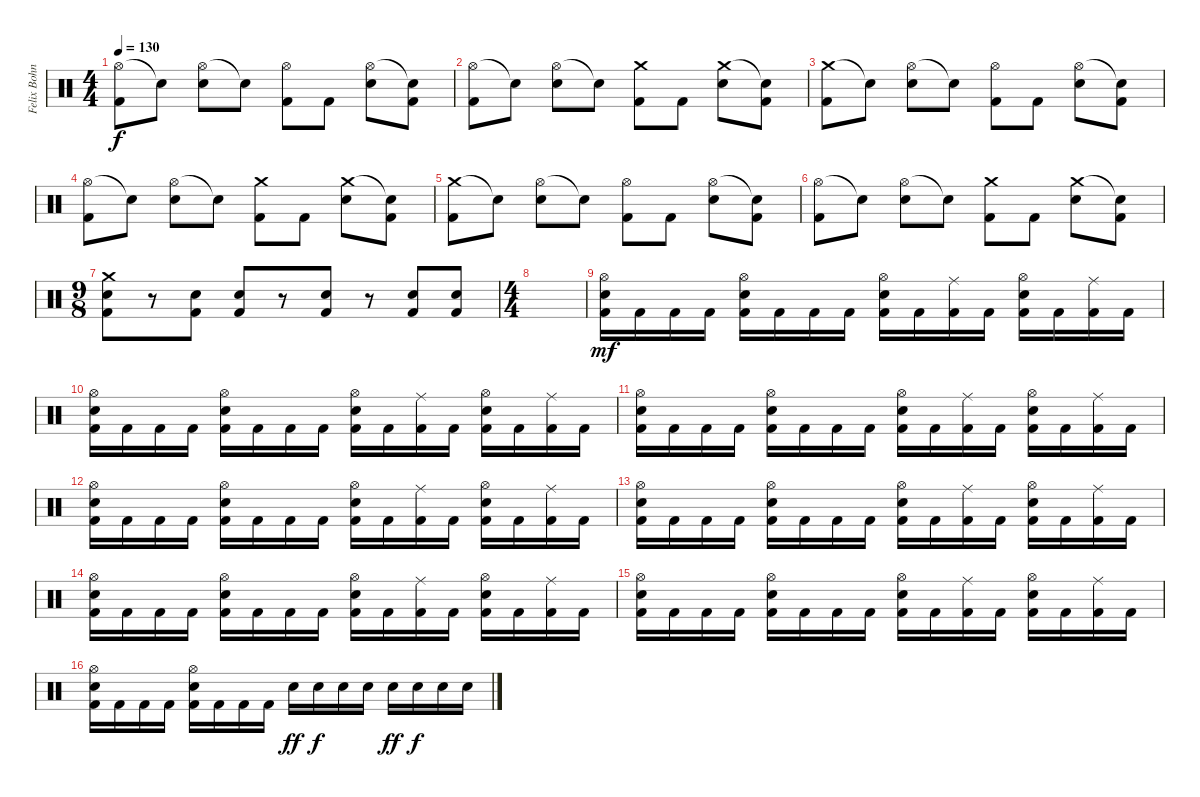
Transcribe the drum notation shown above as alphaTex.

\track ("Felix Bohnke" "Felix Bohn") {instrument percussion}
\staff {score}
\articulation defaults
\ts (4 4)
\tempo 130
\clef neutral
\ks c
("Hi-Hat (open)" "Kick (hit) 2").8{dy f} "Snare (hit)"{t}.8 ("Hi-Hat (open)" "Electric Snare (hit)").8 "Snare (hit)"{t}.8 ("Hi-Hat (open)" "Kick (hit) 2").8 "Kick (hit) 2".8 ("Hi-Hat (open)" "Electric Snare (hit)").8 ("Snare (hit)"{t} "Kick (hit) 2").8 |
("Hi-Hat (open)" "Kick (hit) 2").8 "Snare (hit)"{t}.8 ("Hi-Hat (open)" "Electric Snare (hit)").8 "Snare (hit)"{t}.8 ("Crash medium (hit)" "Kick (hit) 2").8 "Kick (hit) 2".8 ("Crash medium (hit)" "Electric Snare (hit)").8 ("Snare (hit)"{t} "Kick (hit) 2").8 |
("Crash medium (hit)" "Kick (hit) 2").8 "Snare (hit)"{t}.8 ("Hi-Hat (open)" "Electric Snare (hit)").8 "Snare (hit)"{t}.8 ("Hi-Hat (open)" "Kick (hit) 2").8 "Kick (hit) 2".8 ("Hi-Hat (open)" "Electric Snare (hit)").8 ("Snare (hit)"{t} "Kick (hit) 2").8 |
("Hi-Hat (open)" "Kick (hit) 2").8 "Snare (hit)"{t}.8 ("Hi-Hat (open)" "Electric Snare (hit)").8 "Snare (hit)"{t}.8 ("Crash medium (hit)" "Kick (hit) 2").8 "Kick (hit) 2".8 ("Crash medium (hit)" "Electric Snare (hit)").8 ("Snare (hit)"{t} "Kick (hit) 2").8 |
("Crash medium (hit)" "Kick (hit) 2").8 "Snare (hit)"{t}.8 ("Hi-Hat (open)" "Electric Snare (hit)").8 "Snare (hit)"{t}.8 ("Hi-Hat (open)" "Kick (hit) 2").8 "Kick (hit) 2".8 ("Hi-Hat (open)" "Electric Snare (hit)").8 ("Snare (hit)"{t} "Kick (hit) 2").8 |
("Hi-Hat (open)" "Kick (hit) 2").8 "Snare (hit)"{t}.8 ("Hi-Hat (open)" "Electric Snare (hit)").8 "Snare (hit)"{t}.8 ("Crash medium (hit)" "Kick (hit) 2").8 "Kick (hit) 2".8 ("Crash medium (hit)" "Electric Snare (hit)").8 ("Snare (hit)"{t} "Kick (hit) 2").8 |
\ts (9 8)
("Crash medium (hit)" "Electric Snare (hit)" "Kick (hit) 2").8 r.8 ("Electric Snare (hit)" "Kick (hit) 2").8 ("Electric Snare (hit)" "Kick (hit) 2").8 r.8 ("Electric Snare (hit)" "Kick (hit) 2").8 r.8 ("Electric Snare (hit)" "Kick (hit) 2").8 ("Electric Snare (hit)" "Kick (hit) 2").8 |
\ts (4 4)
|
("Hi-Hat (open)" "Electric Snare (hit)" "Kick (hit) 2").16{dy mf} "Kick (hit) 2".16 "Kick (hit) 2".16 "Kick (hit) 2".16 ("Hi-Hat (open)" "Electric Snare (hit)" "Kick (hit) 2").16 "Kick (hit) 2".16 "Kick (hit) 2".16 "Kick (hit) 2".16 ("Hi-Hat (open)" "Electric Snare (hit)" "Kick (hit) 2").16 "Kick (hit) 2".16 ("Ride (middle)" "Kick (hit) 2").16 "Kick (hit) 2".16 ("Hi-Hat (open)" "Electric Snare (hit)" "Kick (hit) 2").16 "Kick (hit) 2".16 ("Ride (middle)" "Kick (hit) 2").16 "Kick (hit) 2".16 |
("Hi-Hat (open)" "Electric Snare (hit)" "Kick (hit) 2").16 "Kick (hit) 2".16 "Kick (hit) 2".16 "Kick (hit) 2".16 ("Hi-Hat (open)" "Electric Snare (hit)" "Kick (hit) 2").16 "Kick (hit) 2".16 "Kick (hit) 2".16 "Kick (hit) 2".16 ("Hi-Hat (open)" "Electric Snare (hit)" "Kick (hit) 2").16 "Kick (hit) 2".16 ("Ride (middle)" "Kick (hit) 2").16 "Kick (hit) 2".16 ("Hi-Hat (open)" "Electric Snare (hit)" "Kick (hit) 2").16 "Kick (hit) 2".16 ("Ride (middle)" "Kick (hit) 2").16 "Kick (hit) 2".16 |
("Hi-Hat (open)" "Electric Snare (hit)" "Kick (hit) 2").16 "Kick (hit) 2".16 "Kick (hit) 2".16 "Kick (hit) 2".16 ("Hi-Hat (open)" "Electric Snare (hit)" "Kick (hit) 2").16 "Kick (hit) 2".16 "Kick (hit) 2".16 "Kick (hit) 2".16 ("Hi-Hat (open)" "Electric Snare (hit)" "Kick (hit) 2").16 "Kick (hit) 2".16 ("Ride (middle)" "Kick (hit) 2").16 "Kick (hit) 2".16 ("Hi-Hat (open)" "Electric Snare (hit)" "Kick (hit) 2").16 "Kick (hit) 2".16 ("Ride (middle)" "Kick (hit) 2").16 "Kick (hit) 2".16 |
("Hi-Hat (open)" "Electric Snare (hit)" "Kick (hit) 2").16 "Kick (hit) 2".16 "Kick (hit) 2".16 "Kick (hit) 2".16 ("Hi-Hat (open)" "Electric Snare (hit)" "Kick (hit) 2").16 "Kick (hit) 2".16 "Kick (hit) 2".16 "Kick (hit) 2".16 ("Hi-Hat (open)" "Electric Snare (hit)" "Kick (hit) 2").16 "Kick (hit) 2".16 ("Ride (middle)" "Kick (hit) 2").16 "Kick (hit) 2".16 ("Hi-Hat (open)" "Electric Snare (hit)" "Kick (hit) 2").16 "Kick (hit) 2".16 ("Ride (middle)" "Kick (hit) 2").16 "Kick (hit) 2".16 |
("Hi-Hat (open)" "Electric Snare (hit)" "Kick (hit) 2").16 "Kick (hit) 2".16 "Kick (hit) 2".16 "Kick (hit) 2".16 ("Hi-Hat (open)" "Electric Snare (hit)" "Kick (hit) 2").16 "Kick (hit) 2".16 "Kick (hit) 2".16 "Kick (hit) 2".16 ("Hi-Hat (open)" "Electric Snare (hit)" "Kick (hit) 2").16 "Kick (hit) 2".16 ("Ride (middle)" "Kick (hit) 2").16 "Kick (hit) 2".16 ("Hi-Hat (open)" "Electric Snare (hit)" "Kick (hit) 2").16 "Kick (hit) 2".16 ("Ride (middle)" "Kick (hit) 2").16 "Kick (hit) 2".16 |
("Hi-Hat (open)" "Electric Snare (hit)" "Kick (hit) 2").16 "Kick (hit) 2".16 "Kick (hit) 2".16 "Kick (hit) 2".16 ("Hi-Hat (open)" "Electric Snare (hit)" "Kick (hit) 2").16 "Kick (hit) 2".16 "Kick (hit) 2".16 "Kick (hit) 2".16 ("Hi-Hat (open)" "Electric Snare (hit)" "Kick (hit) 2").16 "Kick (hit) 2".16 ("Ride (middle)" "Kick (hit) 2").16 "Kick (hit) 2".16 ("Hi-Hat (open)" "Electric Snare (hit)" "Kick (hit) 2").16 "Kick (hit) 2".16 ("Ride (middle)" "Kick (hit) 2").16 "Kick (hit) 2".16 |
("Hi-Hat (open)" "Electric Snare (hit)" "Kick (hit) 2").16 "Kick (hit) 2".16 "Kick (hit) 2".16 "Kick (hit) 2".16 ("Hi-Hat (open)" "Electric Snare (hit)" "Kick (hit) 2").16 "Kick (hit) 2".16 "Kick (hit) 2".16 "Kick (hit) 2".16 ("Hi-Hat (open)" "Electric Snare (hit)" "Kick (hit) 2").16 "Kick (hit) 2".16 ("Ride (middle)" "Kick (hit) 2").16 "Kick (hit) 2".16 ("Hi-Hat (open)" "Electric Snare (hit)" "Kick (hit) 2").16 "Kick (hit) 2".16 ("Ride (middle)" "Kick (hit) 2").16 "Kick (hit) 2".16 |
("Hi-Hat (open)" "Electric Snare (hit)" "Kick (hit) 2").16 "Kick (hit) 2".16 "Kick (hit) 2".16 "Kick (hit) 2".16 ("Hi-Hat (open)" "Electric Snare (hit)" "Kick (hit) 2").16 "Kick (hit) 2".16 "Kick (hit) 2".16 "Kick (hit) 2".16 "Electric Snare (hit)".16{dy ff} "Electric Snare (hit)".16{dy f} "Electric Snare (hit)".16 "Electric Snare (hit)".16 "Electric Snare (hit)".16{dy ff} "Electric Snare (hit)".16{dy f} "Electric Snare (hit)".16 "Electric Snare (hit)".16
